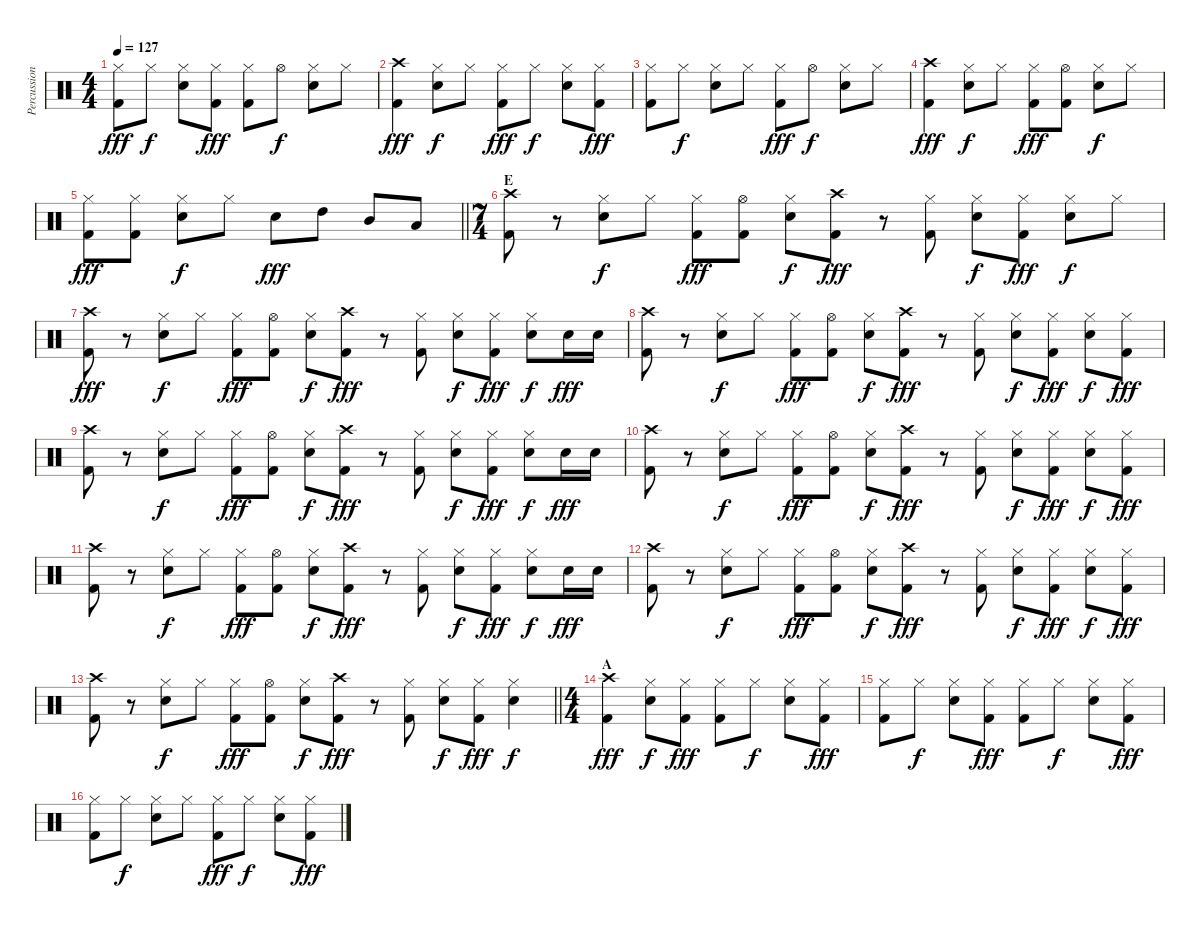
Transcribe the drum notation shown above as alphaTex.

\track ("Percussion" "Percussion") {instrument percussion}
\staff {score}
\articulation defaults
\ts (4 4)
\tempo 127
\clef neutral
\ks c
("Hi-Hat (closed)" "Kick (hit) 2").8{dy fff} "Hi-Hat (closed)".8{dy f} ("Hi-Hat (closed)" "Electric Snare (hit)").8 ("Hi-Hat (closed)" "Kick (hit) 2").8{dy fff} ("Hi-Hat (closed)" "Kick (hit) 2").8 "Hi-Hat (open)".8{dy f} ("Hi-Hat (closed)" "Electric Snare (hit)").8 "Hi-Hat (closed)".8 |
("Crash high (hit)" "Kick (hit) 2").4{dy fff} ("Hi-Hat (closed)" "Electric Snare (hit)").8{dy f} "Hi-Hat (closed)".8 ("Hi-Hat (closed)" "Kick (hit) 2").8{dy fff} "Hi-Hat (closed)".8{dy f} ("Hi-Hat (closed)" "Electric Snare (hit)").8 ("Hi-Hat (closed)" "Kick (hit) 2").8{dy fff} |
("Hi-Hat (closed)" "Kick (hit) 2").8 "Hi-Hat (closed)".8{dy f} ("Hi-Hat (closed)" "Electric Snare (hit)").8 "Hi-Hat (closed)".8 ("Hi-Hat (closed)" "Kick (hit) 2").8{dy fff} "Hi-Hat (open)".8{dy f} ("Hi-Hat (closed)" "Electric Snare (hit)").8 "Hi-Hat (closed)".8 |
("Crash high (hit)" "Kick (hit) 2").4{dy fff} ("Hi-Hat (closed)" "Electric Snare (hit)").8{dy f} "Hi-Hat (closed)".8 ("Hi-Hat (closed)" "Kick (hit) 2").8{dy fff} ("Hi-Hat (open)" "Kick (hit) 2").8 ("Hi-Hat (closed)" "Electric Snare (hit)").8{dy f} "Hi-Hat (closed)".8 |
\barLineRight lightlight
("Hi-Hat (closed)" "Kick (hit) 2").8{dy fff} ("Hi-Hat (closed)" "Kick (hit) 2").8 ("Hi-Hat (closed)" "Electric Snare (hit)").8{dy f} "Hi-Hat (closed)".8 "Electric Snare (hit)".8{dy fff} "High Tom (hit)".8 "Mid Tom (hit)".8 "Low Tom (hit)".8 |
\ts (7 4)
\section ("" "E")
("Crash high (hit)" "Kick (hit) 2").8 r.8 ("Hi-Hat (closed)" "Electric Snare (hit)").8{dy f} "Hi-Hat (closed)".8 ("Hi-Hat (closed)" "Kick (hit) 2").8{dy fff} ("Hi-Hat (open)" "Kick (hit) 2").8 ("Hi-Hat (closed)" "Electric Snare (hit)").8{dy f} ("Crash high (hit)" "Kick (hit) 2").8{dy fff} r.8 ("Hi-Hat (closed)" "Kick (hit) 2").8 ("Hi-Hat (closed)" "Electric Snare (hit)").8{dy f} ("Hi-Hat (closed)" "Kick (hit) 2").8{dy fff} ("Hi-Hat (closed)" "Electric Snare (hit)").8{dy f} "Hi-Hat (closed)".8 |
("Crash high (hit)" "Kick (hit) 2").8{dy fff} r.8 ("Hi-Hat (closed)" "Electric Snare (hit)").8{dy f} "Hi-Hat (closed)".8 ("Hi-Hat (closed)" "Kick (hit) 2").8{dy fff} ("Hi-Hat (open)" "Kick (hit) 2").8 ("Hi-Hat (closed)" "Electric Snare (hit)").8{dy f} ("Crash high (hit)" "Kick (hit) 2").8{dy fff} r.8 ("Hi-Hat (closed)" "Kick (hit) 2").8 ("Hi-Hat (closed)" "Electric Snare (hit)").8{dy f} ("Hi-Hat (closed)" "Kick (hit) 2").8{dy fff} ("Hi-Hat (closed)" "Electric Snare (hit)").8{dy f} "Electric Snare (hit)".16{dy fff} "Electric Snare (hit)".16 |
("Crash high (hit)" "Kick (hit) 2").8 r.8 ("Hi-Hat (closed)" "Electric Snare (hit)").8{dy f} "Hi-Hat (closed)".8 ("Hi-Hat (closed)" "Kick (hit) 2").8{dy fff} ("Hi-Hat (open)" "Kick (hit) 2").8 ("Hi-Hat (closed)" "Electric Snare (hit)").8{dy f} ("Crash high (hit)" "Kick (hit) 2").8{dy fff} r.8 ("Hi-Hat (closed)" "Kick (hit) 2").8 ("Hi-Hat (closed)" "Electric Snare (hit)").8{dy f} ("Hi-Hat (closed)" "Kick (hit) 2").8{dy fff} ("Hi-Hat (closed)" "Electric Snare (hit)").8{dy f} ("Hi-Hat (closed)" "Kick (hit) 2").8{dy fff} |
("Crash high (hit)" "Kick (hit) 2").8 r.8 ("Hi-Hat (closed)" "Electric Snare (hit)").8{dy f} "Hi-Hat (closed)".8 ("Hi-Hat (closed)" "Kick (hit) 2").8{dy fff} ("Hi-Hat (open)" "Kick (hit) 2").8 ("Hi-Hat (closed)" "Electric Snare (hit)").8{dy f} ("Crash high (hit)" "Kick (hit) 2").8{dy fff} r.8 ("Hi-Hat (closed)" "Kick (hit) 2").8 ("Hi-Hat (closed)" "Electric Snare (hit)").8{dy f} ("Hi-Hat (closed)" "Kick (hit) 2").8{dy fff} ("Hi-Hat (closed)" "Electric Snare (hit)").8{dy f} "Electric Snare (hit)".16{dy fff} "Electric Snare (hit)".16 |
("Crash high (hit)" "Kick (hit) 2").8 r.8 ("Hi-Hat (closed)" "Electric Snare (hit)").8{dy f} "Hi-Hat (closed)".8 ("Hi-Hat (closed)" "Kick (hit) 2").8{dy fff} ("Hi-Hat (open)" "Kick (hit) 2").8 ("Hi-Hat (closed)" "Electric Snare (hit)").8{dy f} ("Crash high (hit)" "Kick (hit) 2").8{dy fff} r.8 ("Hi-Hat (closed)" "Kick (hit) 2").8 ("Hi-Hat (closed)" "Electric Snare (hit)").8{dy f} ("Hi-Hat (closed)" "Kick (hit) 2").8{dy fff} ("Hi-Hat (closed)" "Electric Snare (hit)").8{dy f} ("Hi-Hat (closed)" "Kick (hit) 2").8{dy fff} |
("Crash high (hit)" "Kick (hit) 2").8 r.8 ("Hi-Hat (closed)" "Electric Snare (hit)").8{dy f} "Hi-Hat (closed)".8 ("Hi-Hat (closed)" "Kick (hit) 2").8{dy fff} ("Hi-Hat (open)" "Kick (hit) 2").8 ("Hi-Hat (closed)" "Electric Snare (hit)").8{dy f} ("Crash high (hit)" "Kick (hit) 2").8{dy fff} r.8 ("Hi-Hat (closed)" "Kick (hit) 2").8 ("Hi-Hat (closed)" "Electric Snare (hit)").8{dy f} ("Hi-Hat (closed)" "Kick (hit) 2").8{dy fff} ("Hi-Hat (closed)" "Electric Snare (hit)").8{dy f} "Electric Snare (hit)".16{dy fff} "Electric Snare (hit)".16 |
("Crash high (hit)" "Kick (hit) 2").8 r.8 ("Hi-Hat (closed)" "Electric Snare (hit)").8{dy f} "Hi-Hat (closed)".8 ("Hi-Hat (closed)" "Kick (hit) 2").8{dy fff} ("Hi-Hat (open)" "Kick (hit) 2").8 ("Hi-Hat (closed)" "Electric Snare (hit)").8{dy f} ("Crash high (hit)" "Kick (hit) 2").8{dy fff} r.8 ("Hi-Hat (closed)" "Kick (hit) 2").8 ("Hi-Hat (closed)" "Electric Snare (hit)").8{dy f} ("Hi-Hat (closed)" "Kick (hit) 2").8{dy fff} ("Hi-Hat (closed)" "Electric Snare (hit)").8{dy f} ("Hi-Hat (closed)" "Kick (hit) 2").8{dy fff} |
\barLineRight lightlight
("Crash high (hit)" "Kick (hit) 2").8 r.8 ("Hi-Hat (closed)" "Electric Snare (hit)").8{dy f} "Hi-Hat (closed)".8 ("Hi-Hat (closed)" "Kick (hit) 2").8{dy fff} ("Hi-Hat (open)" "Kick (hit) 2").8 ("Hi-Hat (closed)" "Electric Snare (hit)").8{dy f} ("Crash high (hit)" "Kick (hit) 2").8{dy fff} r.8 ("Hi-Hat (closed)" "Kick (hit) 2").8 ("Hi-Hat (closed)" "Electric Snare (hit)").8{dy f} ("Hi-Hat (closed)" "Kick (hit) 2").8{dy fff} ("Hi-Hat (closed)" "Electric Snare (hit)").4{dy f} |
\ts (4 4)
\section ("" "A")
("Crash high (hit)" "Kick (hit) 2").4{dy fff} ("Hi-Hat (closed)" "Electric Snare (hit)").8{dy f} ("Hi-Hat (closed)" "Kick (hit) 2").8{dy fff} ("Hi-Hat (closed)" "Kick (hit) 2").8 "Hi-Hat (closed)".8{dy f} ("Hi-Hat (closed)" "Electric Snare (hit)").8 ("Hi-Hat (closed)" "Kick (hit) 2").8{dy fff} |
("Hi-Hat (closed)" "Kick (hit) 2").8 "Hi-Hat (closed)".8{dy f} ("Hi-Hat (closed)" "Electric Snare (hit)").8 ("Hi-Hat (closed)" "Kick (hit) 2").8{dy fff} ("Hi-Hat (closed)" "Kick (hit) 2").8 "Hi-Hat (closed)".8{dy f} ("Hi-Hat (closed)" "Electric Snare (hit)").8 ("Hi-Hat (closed)" "Kick (hit) 2").8{dy fff} |
("Hi-Hat (closed)" "Kick (hit) 2").8 "Hi-Hat (closed)".8{dy f} ("Hi-Hat (closed)" "Electric Snare (hit)").8 "Hi-Hat (closed)".8 ("Hi-Hat (closed)" "Kick (hit) 2").8{dy fff} "Hi-Hat (closed)".8{dy f} ("Hi-Hat (closed)" "Electric Snare (hit)").8 ("Hi-Hat (closed)" "Kick (hit) 2").8{dy fff}
